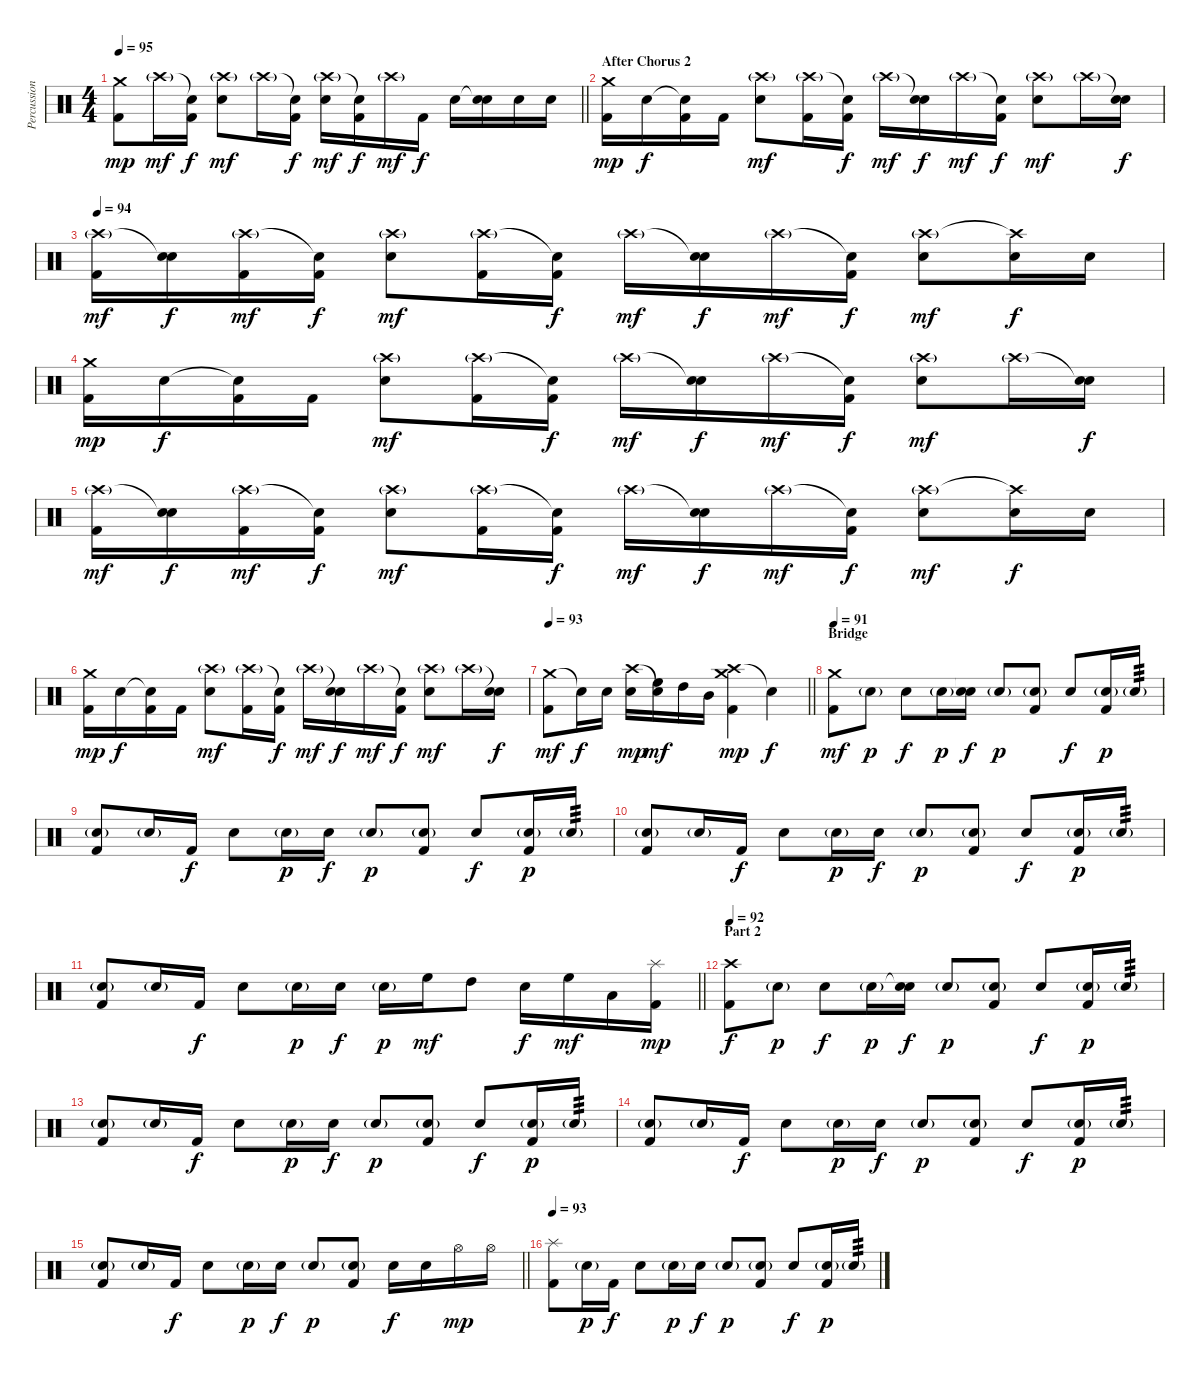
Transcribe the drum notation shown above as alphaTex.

\track ("Percussions" "Percussion") {instrument percussion}
\staff {score}
\articulation defaults
\ts (4 4)
\tempo 95
\clef neutral
\barLineRight lightlight
\ks c
("Crash medium (hit)" "Kick (hit) 2").8{dy mp} "Crash high (hit)"{g}.16{dy mf} ("Snare (hit)"{t} "Kick (hit) 2").16{dy f} ("Crash high (hit)"{g} "Electric Snare (hit)").8{dy mf} "Crash high (hit)"{g}.16 ("Snare (hit)"{t} "Kick (hit) 2").16{dy f} ("Crash high (hit)"{g} "Electric Snare (hit)").16{dy mf} ("Snare (hit)"{t} "Kick (hit) 2").16{dy f} "Crash high (hit)"{g}.16{dy mf} "Kick (hit) 2".16{dy f} "Electric Snare (hit)".16 ("Snare (hit)"{t} "Electric Snare (hit)").16 "Electric Snare (hit)".16 "Electric Snare (hit)".16 |
\section ("" "After Chorus 2")
("Crash medium (hit)" "Kick (hit) 2").16{dy mp} "Electric Snare (hit)".16{dy f} ("Snare (hit)"{t} "Kick (hit) 2").16 "Kick (hit) 2".16 ("Crash high (hit)"{g} "Electric Snare (hit)").8{dy mf} ("Crash high (hit)"{g} "Kick (hit) 2").16 ("Snare (hit)"{t} "Kick (hit) 2").16{dy f} "Crash high (hit)"{g}.16{dy mf} ("Snare (hit)"{t} "Electric Snare (hit)").16{dy f} "Crash high (hit)"{g}.16{dy mf} ("Snare (hit)"{t} "Kick (hit) 2").16{dy f} ("Crash high (hit)"{g} "Electric Snare (hit)").8{dy mf} "Crash high (hit)"{g}.16 ("Snare (hit)"{t} "Electric Snare (hit)").16{dy f} |
\tempo 94
("Crash high (hit)"{g} "Kick (hit) 2").16{dy mf} ("Snare (hit)"{t} "Electric Snare (hit)").16{dy f} ("Crash high (hit)"{g} "Kick (hit) 2").16{dy mf} ("Snare (hit)"{t} "Kick (hit) 2").16{dy f} ("Crash high (hit)"{g} "Electric Snare (hit)").8{dy mf} ("Crash high (hit)"{g} "Kick (hit) 2").16 ("Snare (hit)"{t} "Kick (hit) 2").16{dy f} "Crash high (hit)"{g}.16{dy mf} ("Snare (hit)"{t} "Electric Snare (hit)").16{dy f} "Crash high (hit)"{g}.16{dy mf} ("Snare (hit)"{t} "Kick (hit) 2").16{dy f} ("Crash high (hit)"{g} "Electric Snare (hit)").8{dy mf} ("Crash high (hit)"{t} "Electric Snare (hit)").16{dy f} "Electric Snare (hit)".16 |
("Crash medium (hit)" "Kick (hit) 2").16{dy mp} "Electric Snare (hit)".16{dy f} ("Snare (hit)"{t} "Kick (hit) 2").16 "Kick (hit) 2".16 ("Crash high (hit)"{g} "Electric Snare (hit)").8{dy mf} ("Crash high (hit)"{g} "Kick (hit) 2").16 ("Snare (hit)"{t} "Kick (hit) 2").16{dy f} "Crash high (hit)"{g}.16{dy mf} ("Snare (hit)"{t} "Electric Snare (hit)").16{dy f} "Crash high (hit)"{g}.16{dy mf} ("Snare (hit)"{t} "Kick (hit) 2").16{dy f} ("Crash high (hit)"{g} "Electric Snare (hit)").8{dy mf} "Crash high (hit)"{g}.16 ("Snare (hit)"{t} "Electric Snare (hit)").16{dy f} |
("Crash high (hit)"{g} "Kick (hit) 2").16{dy mf} ("Snare (hit)"{t} "Electric Snare (hit)").16{dy f} ("Crash high (hit)"{g} "Kick (hit) 2").16{dy mf} ("Snare (hit)"{t} "Kick (hit) 2").16{dy f} ("Crash high (hit)"{g} "Electric Snare (hit)").8{dy mf} ("Crash high (hit)"{g} "Kick (hit) 2").16 ("Snare (hit)"{t} "Kick (hit) 2").16{dy f} "Crash high (hit)"{g}.16{dy mf} ("Snare (hit)"{t} "Electric Snare (hit)").16{dy f} "Crash high (hit)"{g}.16{dy mf} ("Snare (hit)"{t} "Kick (hit) 2").16{dy f} ("Crash high (hit)"{g} "Electric Snare (hit)").8{dy mf} ("Crash high (hit)"{t} "Electric Snare (hit)").16{dy f} "Electric Snare (hit)".16 |
("Crash medium (hit)" "Kick (hit) 2").16{dy mp} "Electric Snare (hit)".16{dy f} ("Snare (hit)"{t} "Kick (hit) 2").16 "Kick (hit) 2".16 ("Crash high (hit)"{g} "Electric Snare (hit)").8{dy mf} ("Crash high (hit)"{g} "Kick (hit) 2").16 ("Snare (hit)"{t} "Kick (hit) 2").16{dy f} "Crash high (hit)"{g}.16{dy mf} ("Snare (hit)"{t} "Electric Snare (hit)").16{dy f} "Crash high (hit)"{g}.16{dy mf} ("Snare (hit)"{t} "Kick (hit) 2").16{dy f} ("Crash high (hit)"{g} "Electric Snare (hit)").8{dy mf} "Crash high (hit)"{g}.16 ("Snare (hit)"{t} "Electric Snare (hit)").16{dy f} |
\tempo 93
\barLineRight lightlight
("Crash medium (hit)" "Kick (hit) 2").8{dy mf} "Snare (hit)"{t}.16{dy f} "Electric Snare (hit)".16 ("Crash high (hit)" "Electric Snare (hit)").16{dy mp} ("Snare (hit)"{t} "High Floor Tom (hit)").16{dy mf} "High Tom (hit)".16 "Mid Tom (hit)".16 ("Crash high (hit)" "Crash medium (hit)" "Kick (hit) 2").4{dy mp} "Snare (hit)"{t}.4{dy f} |
\section ("" "Bridge")
\tempo 91
("Crash medium (hit)" "Kick (hit) 2").8{dy mf} "Snare (hit) 2"{g}.8{dy p} "Electric Snare (hit)".8{dy f} "Snare (hit) 2"{g}.16{dy p} ("Snare (hit)"{t} "Electric Snare (hit)").16{dy f} "Snare (hit) 2"{g}.8{dy p} ("Snare (hit) 2"{g} "Kick (hit) 2").8 "Electric Snare (hit)".8{dy f} ("Snare (hit) 2"{g} "Kick (hit) 2").16{dy p} "Snare (hit) 2"{g}.16{tp 3} |
("Snare (hit) 2"{g} "Kick (hit) 2").8 "Snare (hit) 2"{g}.16 "Kick (hit) 2".16{dy f} "Electric Snare (hit)".8 "Snare (hit) 2"{g}.16{dy p} "Electric Snare (hit)".16{dy f} "Snare (hit) 2"{g}.8{dy p} ("Snare (hit) 2"{g} "Kick (hit) 2").8 "Electric Snare (hit)".8{dy f} ("Snare (hit) 2"{g} "Kick (hit) 2").16{dy p} "Snare (hit) 2"{g}.16{tp 3} |
("Snare (hit) 2"{g} "Kick (hit) 2").8 "Snare (hit) 2"{g}.16 "Kick (hit) 2".16{dy f} "Electric Snare (hit)".8 "Snare (hit) 2"{g}.16{dy p} "Electric Snare (hit)".16{dy f} "Snare (hit) 2"{g}.8{dy p} ("Snare (hit) 2"{g} "Kick (hit) 2").8 "Electric Snare (hit)".8{dy f} ("Snare (hit) 2"{g} "Kick (hit) 2").16{dy p} "Snare (hit) 2"{g}.16{tp 3} |
\barLineRight lightlight
("Snare (hit) 2"{g} "Kick (hit) 2").8 "Snare (hit) 2"{g}.16 "Kick (hit) 2".16{dy f} "Electric Snare (hit)".8 "Snare (hit) 2"{g}.16{dy p} "Electric Snare (hit)".16{dy f} "Snare (hit) 2"{g}.16{dy p} "High Floor Tom (hit)".16{dy mf} "High Tom (hit)".8 "Electric Snare (hit)".16{dy f} "High Floor Tom (hit)".16{dy mf} "Low Tom (hit)".16 ("Splash (hit)" "Kick (hit) 2").16{dy mp} |
\section ("" "Part 2")
\tempo 92
("Crash high (hit)" "Kick (hit) 2").8{dy f} "Snare (hit) 2"{g}.8{dy p} "Electric Snare (hit)".8{dy f} "Snare (hit) 2"{g}.16{dy p} ("Snare (hit)"{t} "Electric Snare (hit)").16{dy f} "Snare (hit) 2"{g}.8{dy p} ("Snare (hit) 2"{g} "Kick (hit) 2").8 "Electric Snare (hit)".8{dy f} ("Snare (hit) 2"{g} "Kick (hit) 2").16{dy p} "Snare (hit) 2"{g}.16{tp 3} |
("Snare (hit) 2"{g} "Kick (hit) 2").8 "Snare (hit) 2"{g}.16 "Kick (hit) 2".16{dy f} "Electric Snare (hit)".8 "Snare (hit) 2"{g}.16{dy p} "Electric Snare (hit)".16{dy f} "Snare (hit) 2"{g}.8{dy p} ("Snare (hit) 2"{g} "Kick (hit) 2").8 "Electric Snare (hit)".8{dy f} ("Snare (hit) 2"{g} "Kick (hit) 2").16{dy p} "Snare (hit) 2"{g}.16{tp 3} |
("Snare (hit) 2"{g} "Kick (hit) 2").8 "Snare (hit) 2"{g}.16 "Kick (hit) 2".16{dy f} "Electric Snare (hit)".8 "Snare (hit) 2"{g}.16{dy p} "Electric Snare (hit)".16{dy f} "Snare (hit) 2"{g}.8{dy p} ("Snare (hit) 2"{g} "Kick (hit) 2").8 "Electric Snare (hit)".8{dy f} ("Snare (hit) 2"{g} "Kick (hit) 2").16{dy p} "Snare (hit) 2"{g}.16{tp 3} |
\barLineRight lightlight
("Snare (hit) 2"{g} "Kick (hit) 2").8 "Snare (hit) 2"{g}.16 "Kick (hit) 2".16{dy f} "Electric Snare (hit)".8 "Snare (hit) 2"{g}.16{dy p} "Electric Snare (hit)".16{dy f} "Snare (hit) 2"{g}.8{dy p} ("Snare (hit) 2"{g} "Kick (hit) 2").8 "Electric Snare (hit)".16{dy f} "Electric Snare (hit)".16 "Hi-Hat (open)".16{dy mp} "Hi-Hat (open)".16 |
\tempo 93
("Splash (hit)" "Kick (hit) 2").8 "Snare (hit) 2"{g}.16{dy p} "Kick (hit) 2".16{dy f} "Electric Snare (hit)".8 "Snare (hit) 2"{g}.16{dy p} "Electric Snare (hit)".16{dy f} "Snare (hit) 2"{g}.8{dy p} ("Snare (hit) 2"{g} "Kick (hit) 2").8 "Electric Snare (hit)".8{dy f} ("Snare (hit) 2"{g} "Kick (hit) 2").16{dy p} "Snare (hit) 2"{g}.16{tp 3}
